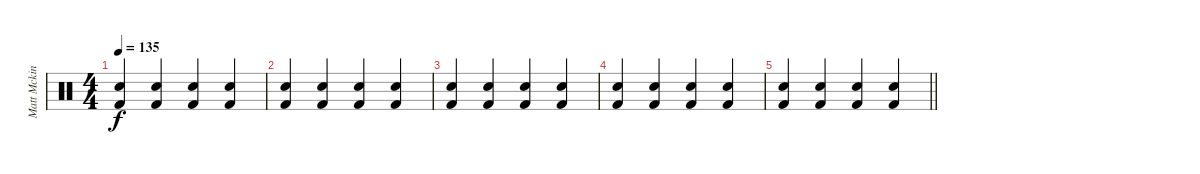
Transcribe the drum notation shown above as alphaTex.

\track ("Matt Mckinley (Drums)" "Matt Mckin") {instrument percussion}
\staff {score}
\articulation defaults
\ts (4 4)
\tempo 135
\clef neutral
\ks c
("Electric Snare (hit)" "Kick (hit) 2").4{dy f} ("Electric Snare (hit)" "Kick (hit) 2").4 ("Electric Snare (hit)" "Kick (hit) 2").4 ("Electric Snare (hit)" "Kick (hit) 2").4 |
("Electric Snare (hit)" "Kick (hit) 2").4 ("Electric Snare (hit)" "Kick (hit) 2").4 ("Electric Snare (hit)" "Kick (hit) 2").4 ("Electric Snare (hit)" "Kick (hit) 2").4 |
("Electric Snare (hit)" "Kick (hit) 2").4 ("Electric Snare (hit)" "Kick (hit) 2").4 ("Electric Snare (hit)" "Kick (hit) 2").4 ("Electric Snare (hit)" "Kick (hit) 2").4 |
("Electric Snare (hit)" "Kick (hit) 2").4 ("Electric Snare (hit)" "Kick (hit) 2").4 ("Electric Snare (hit)" "Kick (hit) 2").4 ("Electric Snare (hit)" "Kick (hit) 2").4 |
\barLineRight lightlight
("Electric Snare (hit)" "Kick (hit) 2").4 ("Electric Snare (hit)" "Kick (hit) 2").4 ("Electric Snare (hit)" "Kick (hit) 2").4 ("Electric Snare (hit)" "Kick (hit) 2").4
